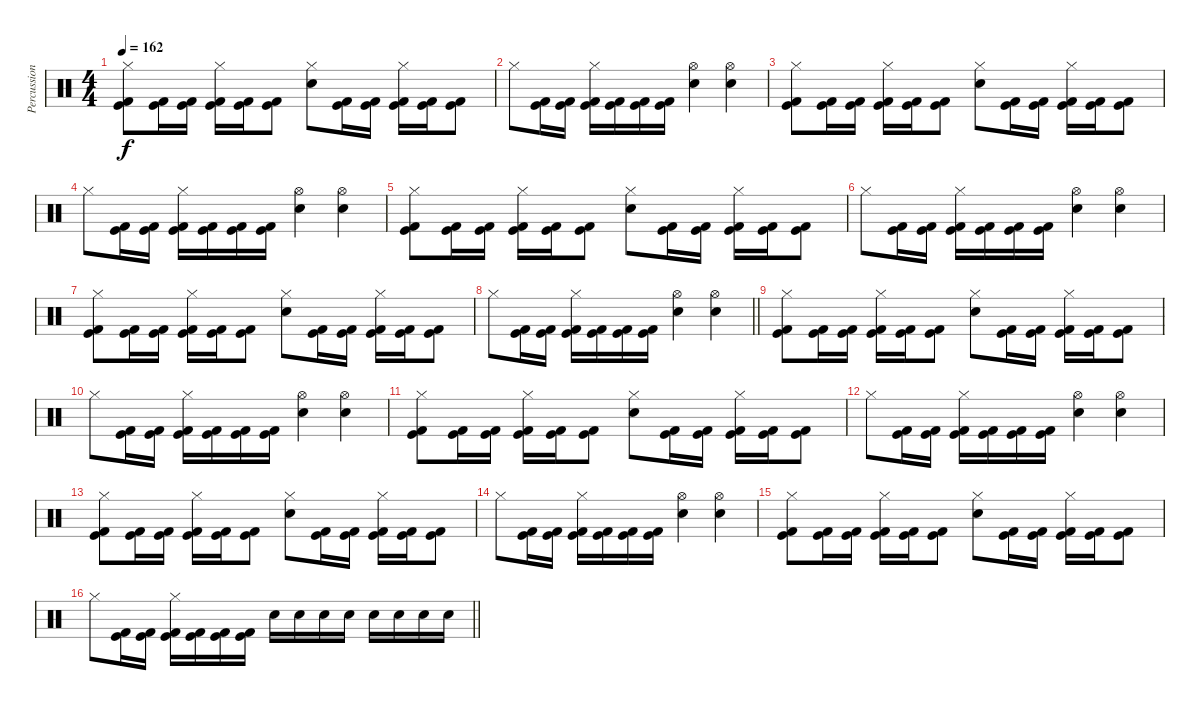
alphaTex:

\track ("Percussion" "Percussion") {instrument percussion}
\staff {score}
\articulation defaults
\ts (4 4)
\tempo 162
\clef neutral
\ks c
("Hi-Hat (closed)" "Kick (hit)" "Kick (hit) 2").8{dy f} ("Kick (hit)" "Kick (hit) 2").16 ("Kick (hit)" "Kick (hit) 2").16 ("Hi-Hat (closed)" "Kick (hit)" "Kick (hit) 2").16 ("Kick (hit)" "Kick (hit) 2").16 ("Kick (hit)" "Kick (hit) 2").8 ("Hi-Hat (closed)" "Electric Snare (hit)").8 ("Kick (hit)" "Kick (hit) 2").16 ("Kick (hit)" "Kick (hit) 2").16 ("Hi-Hat (closed)" "Kick (hit)" "Kick (hit) 2").16 ("Kick (hit)" "Kick (hit) 2").16 ("Kick (hit)" "Kick (hit) 2").8 |
"Hi-Hat (closed)".8 ("Kick (hit)" "Kick (hit) 2").16 ("Kick (hit)" "Kick (hit) 2").16 ("Hi-Hat (closed)" "Kick (hit)" "Kick (hit) 2").16 ("Kick (hit)" "Kick (hit) 2").16 ("Kick (hit)" "Kick (hit) 2").16 ("Kick (hit)" "Kick (hit) 2").16 ("Hi-Hat (open)" "Electric Snare (hit)").4 ("Hi-Hat (open)" "Electric Snare (hit)").4 |
("Hi-Hat (closed)" "Kick (hit)" "Kick (hit) 2").8 ("Kick (hit)" "Kick (hit) 2").16 ("Kick (hit)" "Kick (hit) 2").16 ("Hi-Hat (closed)" "Kick (hit)" "Kick (hit) 2").16 ("Kick (hit)" "Kick (hit) 2").16 ("Kick (hit)" "Kick (hit) 2").8 ("Hi-Hat (closed)" "Electric Snare (hit)").8 ("Kick (hit)" "Kick (hit) 2").16 ("Kick (hit)" "Kick (hit) 2").16 ("Hi-Hat (closed)" "Kick (hit)" "Kick (hit) 2").16 ("Kick (hit)" "Kick (hit) 2").16 ("Kick (hit)" "Kick (hit) 2").8 |
"Hi-Hat (closed)".8 ("Kick (hit)" "Kick (hit) 2").16 ("Kick (hit)" "Kick (hit) 2").16 ("Hi-Hat (closed)" "Kick (hit)" "Kick (hit) 2").16 ("Kick (hit)" "Kick (hit) 2").16 ("Kick (hit)" "Kick (hit) 2").16 ("Kick (hit)" "Kick (hit) 2").16 ("Hi-Hat (open)" "Electric Snare (hit)").4 ("Hi-Hat (open)" "Electric Snare (hit)").4 |
("Hi-Hat (closed)" "Kick (hit)" "Kick (hit) 2").8 ("Kick (hit)" "Kick (hit) 2").16 ("Kick (hit)" "Kick (hit) 2").16 ("Hi-Hat (closed)" "Kick (hit)" "Kick (hit) 2").16 ("Kick (hit)" "Kick (hit) 2").16 ("Kick (hit)" "Kick (hit) 2").8 ("Hi-Hat (closed)" "Electric Snare (hit)").8 ("Kick (hit)" "Kick (hit) 2").16 ("Kick (hit)" "Kick (hit) 2").16 ("Hi-Hat (closed)" "Kick (hit)" "Kick (hit) 2").16 ("Kick (hit)" "Kick (hit) 2").16 ("Kick (hit)" "Kick (hit) 2").8 |
"Hi-Hat (closed)".8 ("Kick (hit)" "Kick (hit) 2").16 ("Kick (hit)" "Kick (hit) 2").16 ("Hi-Hat (closed)" "Kick (hit)" "Kick (hit) 2").16 ("Kick (hit)" "Kick (hit) 2").16 ("Kick (hit)" "Kick (hit) 2").16 ("Kick (hit)" "Kick (hit) 2").16 ("Hi-Hat (open)" "Electric Snare (hit)").4 ("Hi-Hat (open)" "Electric Snare (hit)").4 |
("Hi-Hat (closed)" "Kick (hit)" "Kick (hit) 2").8 ("Kick (hit)" "Kick (hit) 2").16 ("Kick (hit)" "Kick (hit) 2").16 ("Hi-Hat (closed)" "Kick (hit)" "Kick (hit) 2").16 ("Kick (hit)" "Kick (hit) 2").16 ("Kick (hit)" "Kick (hit) 2").8 ("Hi-Hat (closed)" "Electric Snare (hit)").8 ("Kick (hit)" "Kick (hit) 2").16 ("Kick (hit)" "Kick (hit) 2").16 ("Hi-Hat (closed)" "Kick (hit)" "Kick (hit) 2").16 ("Kick (hit)" "Kick (hit) 2").16 ("Kick (hit)" "Kick (hit) 2").8 |
\barLineRight lightlight "Hi-Hat (closed)".8
("Kick (hit)" "Kick (hit) 2").16 ("Kick (hit)" "Kick (hit) 2").16 ("Hi-Hat (closed)" "Kick (hit)" "Kick (hit) 2").16 ("Kick (hit)" "Kick (hit) 2").16 ("Kick (hit)" "Kick (hit) 2").16 ("Kick (hit)" "Kick (hit) 2").16 ("Hi-Hat (open)" "Electric Snare (hit)").4 ("Hi-Hat (open)" "Electric Snare (hit)").4 |
\section ("" "")
("Hi-Hat (closed)" "Kick (hit)" "Kick (hit) 2").8 ("Kick (hit)" "Kick (hit) 2").16 ("Kick (hit)" "Kick (hit) 2").16 ("Hi-Hat (closed)" "Kick (hit)" "Kick (hit) 2").16 ("Kick (hit)" "Kick (hit) 2").16 ("Kick (hit)" "Kick (hit) 2").8 ("Hi-Hat (closed)" "Electric Snare (hit)").8 ("Kick (hit)" "Kick (hit) 2").16 ("Kick (hit)" "Kick (hit) 2").16 ("Hi-Hat (closed)" "Kick (hit)" "Kick (hit) 2").16 ("Kick (hit)" "Kick (hit) 2").16 ("Kick (hit)" "Kick (hit) 2").8 |
"Hi-Hat (closed)".8 ("Kick (hit)" "Kick (hit) 2").16 ("Kick (hit)" "Kick (hit) 2").16 ("Hi-Hat (closed)" "Kick (hit)" "Kick (hit) 2").16 ("Kick (hit)" "Kick (hit) 2").16 ("Kick (hit)" "Kick (hit) 2").16 ("Kick (hit)" "Kick (hit) 2").16 ("Hi-Hat (open)" "Electric Snare (hit)").4 ("Hi-Hat (open)" "Electric Snare (hit)").4 |
("Hi-Hat (closed)" "Kick (hit)" "Kick (hit) 2").8 ("Kick (hit)" "Kick (hit) 2").16 ("Kick (hit)" "Kick (hit) 2").16 ("Hi-Hat (closed)" "Kick (hit)" "Kick (hit) 2").16 ("Kick (hit)" "Kick (hit) 2").16 ("Kick (hit)" "Kick (hit) 2").8 ("Hi-Hat (closed)" "Electric Snare (hit)").8 ("Kick (hit)" "Kick (hit) 2").16 ("Kick (hit)" "Kick (hit) 2").16 ("Hi-Hat (closed)" "Kick (hit)" "Kick (hit) 2").16 ("Kick (hit)" "Kick (hit) 2").16 ("Kick (hit)" "Kick (hit) 2").8 |
"Hi-Hat (closed)".8 ("Kick (hit)" "Kick (hit) 2").16 ("Kick (hit)" "Kick (hit) 2").16 ("Hi-Hat (closed)" "Kick (hit)" "Kick (hit) 2").16 ("Kick (hit)" "Kick (hit) 2").16 ("Kick (hit)" "Kick (hit) 2").16 ("Kick (hit)" "Kick (hit) 2").16 ("Hi-Hat (open)" "Electric Snare (hit)").4 ("Hi-Hat (open)" "Electric Snare (hit)").4 |
("Hi-Hat (closed)" "Kick (hit)" "Kick (hit) 2").8 ("Kick (hit)" "Kick (hit) 2").16 ("Kick (hit)" "Kick (hit) 2").16 ("Hi-Hat (closed)" "Kick (hit)" "Kick (hit) 2").16 ("Kick (hit)" "Kick (hit) 2").16 ("Kick (hit)" "Kick (hit) 2").8 ("Hi-Hat (closed)" "Electric Snare (hit)").8 ("Kick (hit)" "Kick (hit) 2").16 ("Kick (hit)" "Kick (hit) 2").16 ("Hi-Hat (closed)" "Kick (hit)" "Kick (hit) 2").16 ("Kick (hit)" "Kick (hit) 2").16 ("Kick (hit)" "Kick (hit) 2").8 |
"Hi-Hat (closed)".8 ("Kick (hit)" "Kick (hit) 2").16 ("Kick (hit)" "Kick (hit) 2").16 ("Hi-Hat (closed)" "Kick (hit)" "Kick (hit) 2").16 ("Kick (hit)" "Kick (hit) 2").16 ("Kick (hit)" "Kick (hit) 2").16 ("Kick (hit)" "Kick (hit) 2").16 ("Hi-Hat (open)" "Electric Snare (hit)").4 ("Hi-Hat (open)" "Electric Snare (hit)").4 |
("Hi-Hat (closed)" "Kick (hit)" "Kick (hit) 2").8 ("Kick (hit)" "Kick (hit) 2").16 ("Kick (hit)" "Kick (hit) 2").16 ("Hi-Hat (closed)" "Kick (hit)" "Kick (hit) 2").16 ("Kick (hit)" "Kick (hit) 2").16 ("Kick (hit)" "Kick (hit) 2").8 ("Hi-Hat (closed)" "Electric Snare (hit)").8 ("Kick (hit)" "Kick (hit) 2").16 ("Kick (hit)" "Kick (hit) 2").16 ("Hi-Hat (closed)" "Kick (hit)" "Kick (hit) 2").16 ("Kick (hit)" "Kick (hit) 2").16 ("Kick (hit)" "Kick (hit) 2").8 |
\barLineRight lightlight "Hi-Hat (closed)".8
("Kick (hit)" "Kick (hit) 2").16 ("Kick (hit)" "Kick (hit) 2").16 ("Hi-Hat (closed)" "Kick (hit)" "Kick (hit) 2").16 ("Kick (hit)" "Kick (hit) 2").16 ("Kick (hit)" "Kick (hit) 2").16 ("Kick (hit)" "Kick (hit) 2").16 "Electric Snare (hit)".16 "Electric Snare (hit)".16 "Electric Snare (hit)".16 "Electric Snare (hit)".16 "Electric Snare (hit)".16 "Electric Snare (hit)".16 "Electric Snare (hit)".16 "Electric Snare (hit)".16
